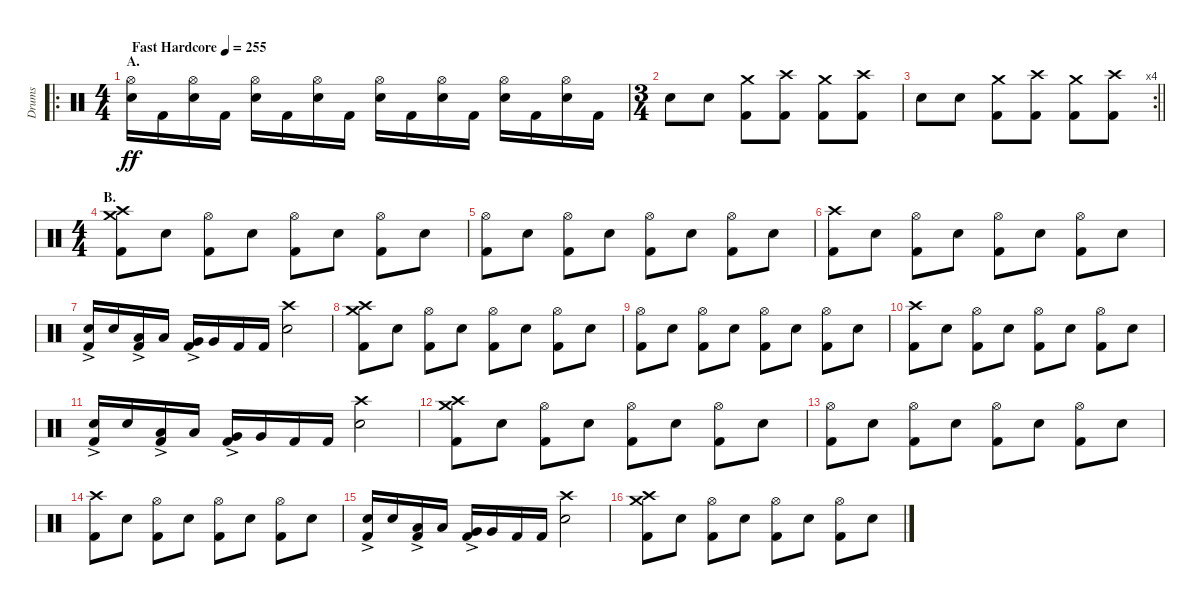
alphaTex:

\track ("Drums" "Drums") {instrument percussion}
\staff {score}
\articulation defaults
\ro
\ts (4 4)
\section ("" "A.")
\tempo (255 "Fast Hardcore")
\clef neutral
\ks c
("Hi-Hat (open)" "Electric Snare (hit)").16{dy ff} "Kick (hit) 2".16 ("Hi-Hat (open)" "Electric Snare (hit)").16 "Kick (hit) 2".16 ("Hi-Hat (open)" "Electric Snare (hit)").16 "Kick (hit) 2".16 ("Hi-Hat (open)" "Electric Snare (hit)").16 "Kick (hit) 2".16 ("Hi-Hat (open)" "Electric Snare (hit)").16 "Kick (hit) 2".16 ("Hi-Hat (open)" "Electric Snare (hit)").16 "Kick (hit) 2".16 ("Hi-Hat (open)" "Electric Snare (hit)").16 "Kick (hit) 2".16 ("Hi-Hat (open)" "Electric Snare (hit)").16 "Kick (hit) 2".16 |
\ts (3 4)
"Electric Snare (hit)".8 "Electric Snare (hit)".8 ("Crash medium (hit)" "Kick (hit) 2").8 ("Crash high (hit)" "Kick (hit) 2").8 ("Crash medium (hit)" "Kick (hit) 2").8 ("Crash high (hit)" "Kick (hit) 2").8 |
\rc 4
\barLineRight lightlight "Electric Snare (hit)".8 "Electric Snare (hit)".8
("Crash medium (hit)" "Kick (hit) 2").8 ("Crash high (hit)" "Kick (hit) 2").8 ("Crash medium (hit)" "Kick (hit) 2").8 ("Crash high (hit)" "Kick (hit) 2").8 |
\ts (4 4)
\section ("" "B.")
("Crash medium (hit)" "Crash high (hit)" "Kick (hit) 2").8 "Electric Snare (hit)".8 ("Hi-Hat (open)" "Kick (hit) 2").8 "Electric Snare (hit)".8 ("Hi-Hat (open)" "Kick (hit) 2").8 "Electric Snare (hit)".8 ("Hi-Hat (open)" "Kick (hit) 2").8 "Electric Snare (hit)".8 |
("Hi-Hat (open)" "Kick (hit) 2").8 "Electric Snare (hit)".8 ("Hi-Hat (open)" "Kick (hit) 2").8 "Electric Snare (hit)".8 ("Hi-Hat (open)" "Kick (hit) 2").8 "Electric Snare (hit)".8 ("Hi-Hat (open)" "Kick (hit) 2").8 "Electric Snare (hit)".8 |
("Crash high (hit)" "Kick (hit) 2").8 "Electric Snare (hit)".8 ("Hi-Hat (open)" "Kick (hit) 2").8 "Electric Snare (hit)".8 ("Hi-Hat (open)" "Kick (hit) 2").8 "Electric Snare (hit)".8 ("Hi-Hat (open)" "Kick (hit) 2").8 "Electric Snare (hit)".8 |
("Electric Snare (hit)"{ac} "Kick (hit) 2").16 "Electric Snare (hit)".16 ("Low Tom (hit)"{ac} "Kick (hit) 2").16 "Low Tom (hit)".16 ("Very Low Tom (hit)"{ac} "Kick (hit) 2").16 "Very Low Tom (hit)".16 "Kick (hit) 2".16 "Kick (hit) 2".16 ("Crash high (hit)" "Electric Snare (hit)").2 |
("Crash medium (hit)" "Crash high (hit)" "Kick (hit) 2").8 "Electric Snare (hit)".8 ("Hi-Hat (open)" "Kick (hit) 2").8 "Electric Snare (hit)".8 ("Hi-Hat (open)" "Kick (hit) 2").8 "Electric Snare (hit)".8 ("Hi-Hat (open)" "Kick (hit) 2").8 "Electric Snare (hit)".8 |
("Hi-Hat (open)" "Kick (hit) 2").8 "Electric Snare (hit)".8 ("Hi-Hat (open)" "Kick (hit) 2").8 "Electric Snare (hit)".8 ("Hi-Hat (open)" "Kick (hit) 2").8 "Electric Snare (hit)".8 ("Hi-Hat (open)" "Kick (hit) 2").8 "Electric Snare (hit)".8 |
("Crash high (hit)" "Kick (hit) 2").8 "Electric Snare (hit)".8 ("Hi-Hat (open)" "Kick (hit) 2").8 "Electric Snare (hit)".8 ("Hi-Hat (open)" "Kick (hit) 2").8 "Electric Snare (hit)".8 ("Hi-Hat (open)" "Kick (hit) 2").8 "Electric Snare (hit)".8 |
("Electric Snare (hit)"{ac} "Kick (hit) 2").16 "Electric Snare (hit)".16 ("Low Tom (hit)"{ac} "Kick (hit) 2").16 "Low Tom (hit)".16 ("Very Low Tom (hit)"{ac} "Kick (hit) 2").16 "Very Low Tom (hit)".16 "Kick (hit) 2".16 "Kick (hit) 2".16 ("Crash high (hit)" "Electric Snare (hit)").2 |
("Crash medium (hit)" "Crash high (hit)" "Kick (hit) 2").8 "Electric Snare (hit)".8 ("Hi-Hat (open)" "Kick (hit) 2").8 "Electric Snare (hit)".8 ("Hi-Hat (open)" "Kick (hit) 2").8 "Electric Snare (hit)".8 ("Hi-Hat (open)" "Kick (hit) 2").8 "Electric Snare (hit)".8 |
("Hi-Hat (open)" "Kick (hit) 2").8 "Electric Snare (hit)".8 ("Hi-Hat (open)" "Kick (hit) 2").8 "Electric Snare (hit)".8 ("Hi-Hat (open)" "Kick (hit) 2").8 "Electric Snare (hit)".8 ("Hi-Hat (open)" "Kick (hit) 2").8 "Electric Snare (hit)".8 |
("Crash high (hit)" "Kick (hit) 2").8 "Electric Snare (hit)".8 ("Hi-Hat (open)" "Kick (hit) 2").8 "Electric Snare (hit)".8 ("Hi-Hat (open)" "Kick (hit) 2").8 "Electric Snare (hit)".8 ("Hi-Hat (open)" "Kick (hit) 2").8 "Electric Snare (hit)".8 |
("Electric Snare (hit)"{ac} "Kick (hit) 2").16 "Electric Snare (hit)".16 ("Low Tom (hit)"{ac} "Kick (hit) 2").16 "Low Tom (hit)".16 ("Very Low Tom (hit)"{ac} "Kick (hit) 2").16 "Very Low Tom (hit)".16 "Kick (hit) 2".16 "Kick (hit) 2".16 ("Crash high (hit)" "Electric Snare (hit)").2 |
("Crash medium (hit)" "Crash high (hit)" "Kick (hit) 2").8 "Electric Snare (hit)".8 ("Hi-Hat (open)" "Kick (hit) 2").8 "Electric Snare (hit)".8 ("Hi-Hat (open)" "Kick (hit) 2").8 "Electric Snare (hit)".8 ("Hi-Hat (open)" "Kick (hit) 2").8 "Electric Snare (hit)".8
